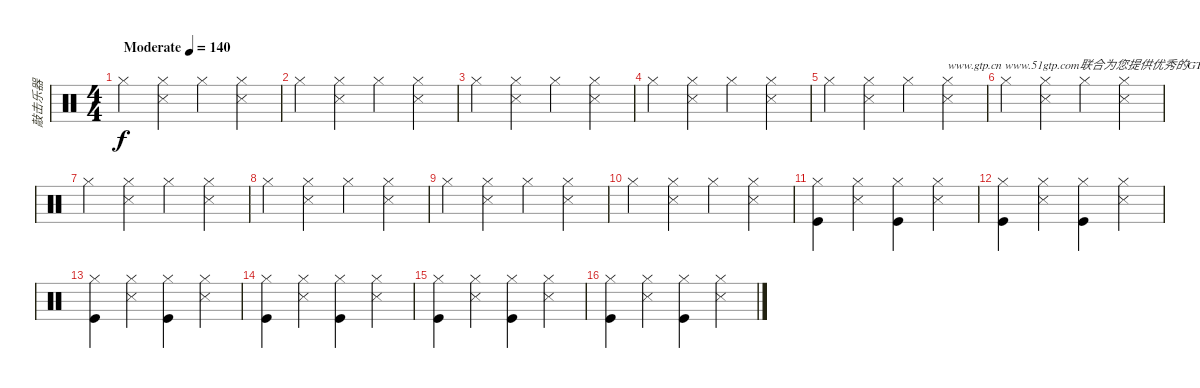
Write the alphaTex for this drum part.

\track ("敲击乐器" "敲击乐器") {instrument percussion}
\staff {score}
\articulation defaults
\ts (4 4)
\tempo (140 "Moderate")
\clef neutral
\ks c "Hi-Hat (closed)".4{dy f}
("Hi-Hat (closed)" "Snare (side stick) 3").4 "Hi-Hat (closed)".4 ("Hi-Hat (closed)" "Snare (side stick) 3").4 |
"Hi-Hat (closed)".4 ("Hi-Hat (closed)" "Snare (side stick) 3").4 "Hi-Hat (closed)".4 ("Hi-Hat (closed)" "Snare (side stick) 3").4 |
"Hi-Hat (closed)".4 ("Hi-Hat (closed)" "Snare (side stick) 3").4 "Hi-Hat (closed)".4 ("Hi-Hat (closed)" "Snare (side stick) 3").4 |
"Hi-Hat (closed)".4 ("Hi-Hat (closed)" "Snare (side stick) 3").4 "Hi-Hat (closed)".4 ("Hi-Hat (closed)" "Snare (side stick) 3").4 |
"Hi-Hat (closed)".4 ("Hi-Hat (closed)" "Snare (side stick) 3").4 "Hi-Hat (closed)".4 ("Hi-Hat (closed)" "Snare (side stick) 3").4{txt "www.gtp.cn www.51gtp.com联合为您提供优秀的GTP!"} |
"Hi-Hat (closed)".4 ("Hi-Hat (closed)" "Snare (side stick) 3").4 "Hi-Hat (closed)".4 ("Hi-Hat (closed)" "Snare (side stick) 3").4 |
"Hi-Hat (closed)".4 ("Hi-Hat (closed)" "Snare (side stick) 3").4 "Hi-Hat (closed)".4 ("Hi-Hat (closed)" "Snare (side stick) 3").4 |
"Hi-Hat (closed)".4 ("Hi-Hat (closed)" "Snare (side stick) 3").4 "Hi-Hat (closed)".4 ("Hi-Hat (closed)" "Snare (side stick) 3").4 |
"Hi-Hat (closed)".4 ("Hi-Hat (closed)" "Snare (side stick) 3").4 "Hi-Hat (closed)".4 ("Hi-Hat (closed)" "Snare (side stick) 3").4 |
"Hi-Hat (closed)".4 ("Hi-Hat (closed)" "Snare (side stick) 3").4 "Hi-Hat (closed)".4 ("Hi-Hat (closed)" "Snare (side stick) 3").4 |
("Kick (hit)" "Hi-Hat (closed)").4 ("Snare (side stick) 3" "Hi-Hat (closed)").4 ("Kick (hit)" "Hi-Hat (closed)").4 ("Snare (side stick) 3" "Hi-Hat (closed)").4 |
("Kick (hit)" "Hi-Hat (closed)").4 ("Snare (side stick) 3" "Hi-Hat (closed)").4 ("Kick (hit)" "Hi-Hat (closed)").4 ("Snare (side stick) 3" "Hi-Hat (closed)").4 |
("Kick (hit)" "Hi-Hat (closed)").4 ("Snare (side stick) 3" "Hi-Hat (closed)").4 ("Kick (hit)" "Hi-Hat (closed)").4 ("Snare (side stick) 3" "Hi-Hat (closed)").4 |
("Kick (hit)" "Hi-Hat (closed)").4 ("Snare (side stick) 3" "Hi-Hat (closed)").4 ("Kick (hit)" "Hi-Hat (closed)").4 ("Snare (side stick) 3" "Hi-Hat (closed)").4 |
("Kick (hit)" "Hi-Hat (closed)").4 ("Snare (side stick) 3" "Hi-Hat (closed)").4 ("Kick (hit)" "Hi-Hat (closed)").4 ("Snare (side stick) 3" "Hi-Hat (closed)").4 |
("Kick (hit)" "Hi-Hat (closed)").4 ("Snare (side stick) 3" "Hi-Hat (closed)").4 ("Kick (hit)" "Hi-Hat (closed)").4 ("Snare (side stick) 3" "Hi-Hat (closed)").4
